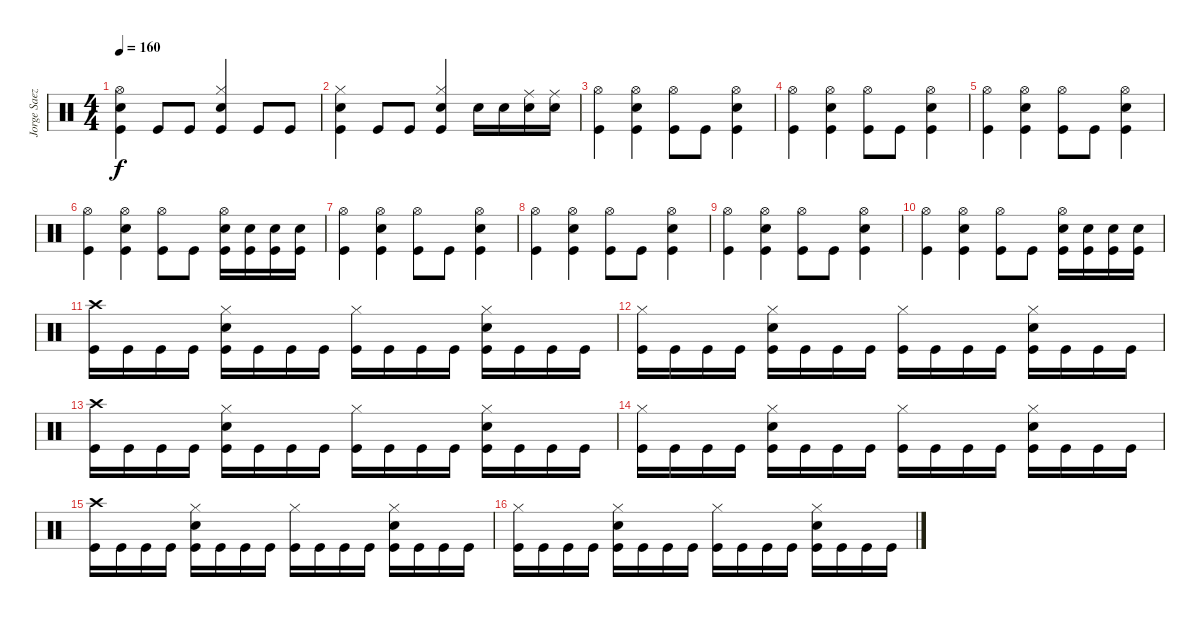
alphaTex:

\track ("Jorge Saez" "Jorge Saez") {instrument percussion}
\staff {score}
\articulation defaults
\ts (4 4)
\tempo 160
\clef neutral
\ks c
("Hi-Hat (open)" "Snare (hit) 2" "Kick (hit)").4{dy f} "Kick (hit)".8 "Kick (hit)".8 ("Hi-Hat (closed)" "Electric Snare (hit)" "Kick (hit)").4 "Kick (hit)".8 "Kick (hit)".8 |
("Hi-Hat (closed)" "Snare (hit) 2" "Kick (hit)").4 "Kick (hit)".8 "Kick (hit)".8 ("Hi-Hat (closed)" "Electric Snare (hit)" "Kick (hit)").4 "Electric Snare (hit)".16 "Electric Snare (hit)".16 ("Ride (middle)" "Electric Snare (hit)").16 ("Ride (middle)" "Electric Snare (hit)").16 |
("Hi-Hat (open)" "Kick (hit)").4 ("Hi-Hat (open)" "Electric Snare (hit)" "Kick (hit)").4 ("Hi-Hat (open)" "Kick (hit)").8 "Kick (hit)".8 ("Hi-Hat (open)" "Electric Snare (hit)" "Kick (hit)").4 |
("Hi-Hat (open)" "Kick (hit)").4 ("Hi-Hat (open)" "Electric Snare (hit)" "Kick (hit)").4 ("Hi-Hat (open)" "Kick (hit)").8 "Kick (hit)".8 ("Hi-Hat (open)" "Electric Snare (hit)" "Kick (hit)").4 |
("Hi-Hat (open)" "Kick (hit)").4 ("Hi-Hat (open)" "Electric Snare (hit)" "Kick (hit)").4 ("Hi-Hat (open)" "Kick (hit)").8 "Kick (hit)".8 ("Hi-Hat (open)" "Electric Snare (hit)" "Kick (hit)").4 |
("Hi-Hat (open)" "Kick (hit)").4 ("Hi-Hat (open)" "Electric Snare (hit)" "Kick (hit)").4 ("Hi-Hat (open)" "Kick (hit)").8 "Kick (hit)".8 ("Hi-Hat (open)" "Snare (hit) 2" "Kick (hit)").16 ("Snare (hit) 2" "Kick (hit)").16 ("Snare (hit) 2" "Kick (hit)").16 ("Snare (hit) 2" "Kick (hit)").16 |
("Hi-Hat (open)" "Kick (hit)").4 ("Hi-Hat (open)" "Electric Snare (hit)" "Kick (hit)").4 ("Hi-Hat (open)" "Kick (hit)").8 "Kick (hit)".8 ("Hi-Hat (open)" "Electric Snare (hit)" "Kick (hit)").4 |
("Hi-Hat (open)" "Kick (hit)").4 ("Hi-Hat (open)" "Electric Snare (hit)" "Kick (hit)").4 ("Hi-Hat (open)" "Kick (hit)").8 "Kick (hit)".8 ("Hi-Hat (open)" "Electric Snare (hit)" "Kick (hit)").4 |
("Hi-Hat (open)" "Kick (hit)").4 ("Hi-Hat (open)" "Electric Snare (hit)" "Kick (hit)").4 ("Hi-Hat (open)" "Kick (hit)").8 "Kick (hit)".8 ("Hi-Hat (open)" "Electric Snare (hit)" "Kick (hit)").4 |
("Hi-Hat (open)" "Kick (hit)").4 ("Hi-Hat (open)" "Electric Snare (hit)" "Kick (hit)").4 ("Hi-Hat (open)" "Kick (hit)").8 "Kick (hit)".8 ("Hi-Hat (open)" "Snare (hit) 2" "Kick (hit)").16 ("Snare (hit) 2" "Kick (hit)").16 ("Snare (hit) 2" "Kick (hit)").16 ("Snare (hit) 2" "Kick (hit)").16 |
("Crash high (hit)" "Kick (hit)").16 "Kick (hit)".16 "Kick (hit)".16 "Kick (hit)".16 ("Hi-Hat (closed)" "Snare (hit) 2" "Kick (hit)").16 "Kick (hit)".16 "Kick (hit)".16 "Kick (hit)".16 ("Hi-Hat (closed)" "Kick (hit)").16 "Kick (hit)".16 "Kick (hit)".16 "Kick (hit)".16 ("Hi-Hat (closed)" "Snare (hit) 2" "Kick (hit)").16 "Kick (hit)".16 "Kick (hit)".16 "Kick (hit)".16 |
("Hi-Hat (closed)" "Kick (hit)").16 "Kick (hit)".16 "Kick (hit)".16 "Kick (hit)".16 ("Hi-Hat (closed)" "Snare (hit) 2" "Kick (hit)").16 "Kick (hit)".16 "Kick (hit)".16 "Kick (hit)".16 ("Hi-Hat (closed)" "Kick (hit)").16 "Kick (hit)".16 "Kick (hit)".16 "Kick (hit)".16 ("Hi-Hat (closed)" "Snare (hit) 2" "Kick (hit)").16 "Kick (hit)".16 "Kick (hit)".16 "Kick (hit)".16 |
("Crash high (hit)" "Kick (hit)").16 "Kick (hit)".16 "Kick (hit)".16 "Kick (hit)".16 ("Hi-Hat (closed)" "Snare (hit) 2" "Kick (hit)").16 "Kick (hit)".16 "Kick (hit)".16 "Kick (hit)".16 ("Hi-Hat (closed)" "Kick (hit)").16 "Kick (hit)".16 "Kick (hit)".16 "Kick (hit)".16 ("Hi-Hat (closed)" "Snare (hit) 2" "Kick (hit)").16 "Kick (hit)".16 "Kick (hit)".16 "Kick (hit)".16 |
("Hi-Hat (closed)" "Kick (hit)").16 "Kick (hit)".16 "Kick (hit)".16 "Kick (hit)".16 ("Hi-Hat (closed)" "Snare (hit) 2" "Kick (hit)").16 "Kick (hit)".16 "Kick (hit)".16 "Kick (hit)".16 ("Hi-Hat (closed)" "Kick (hit)").16 "Kick (hit)".16 "Kick (hit)".16 "Kick (hit)".16 ("Hi-Hat (closed)" "Snare (hit) 2" "Kick (hit)").16 "Kick (hit)".16 "Kick (hit)".16 "Kick (hit)".16 |
("Crash high (hit)" "Kick (hit)").16 "Kick (hit)".16 "Kick (hit)".16 "Kick (hit)".16 ("Hi-Hat (closed)" "Snare (hit) 2" "Kick (hit)").16 "Kick (hit)".16 "Kick (hit)".16 "Kick (hit)".16 ("Hi-Hat (closed)" "Kick (hit)").16 "Kick (hit)".16 "Kick (hit)".16 "Kick (hit)".16 ("Hi-Hat (closed)" "Snare (hit) 2" "Kick (hit)").16 "Kick (hit)".16 "Kick (hit)".16 "Kick (hit)".16 |
("Hi-Hat (closed)" "Kick (hit)").16 "Kick (hit)".16 "Kick (hit)".16 "Kick (hit)".16 ("Hi-Hat (closed)" "Snare (hit) 2" "Kick (hit)").16 "Kick (hit)".16 "Kick (hit)".16 "Kick (hit)".16 ("Hi-Hat (closed)" "Kick (hit)").16 "Kick (hit)".16 "Kick (hit)".16 "Kick (hit)".16 ("Hi-Hat (closed)" "Snare (hit) 2" "Kick (hit)").16 "Kick (hit)".16 "Kick (hit)".16 "Kick (hit)".16
